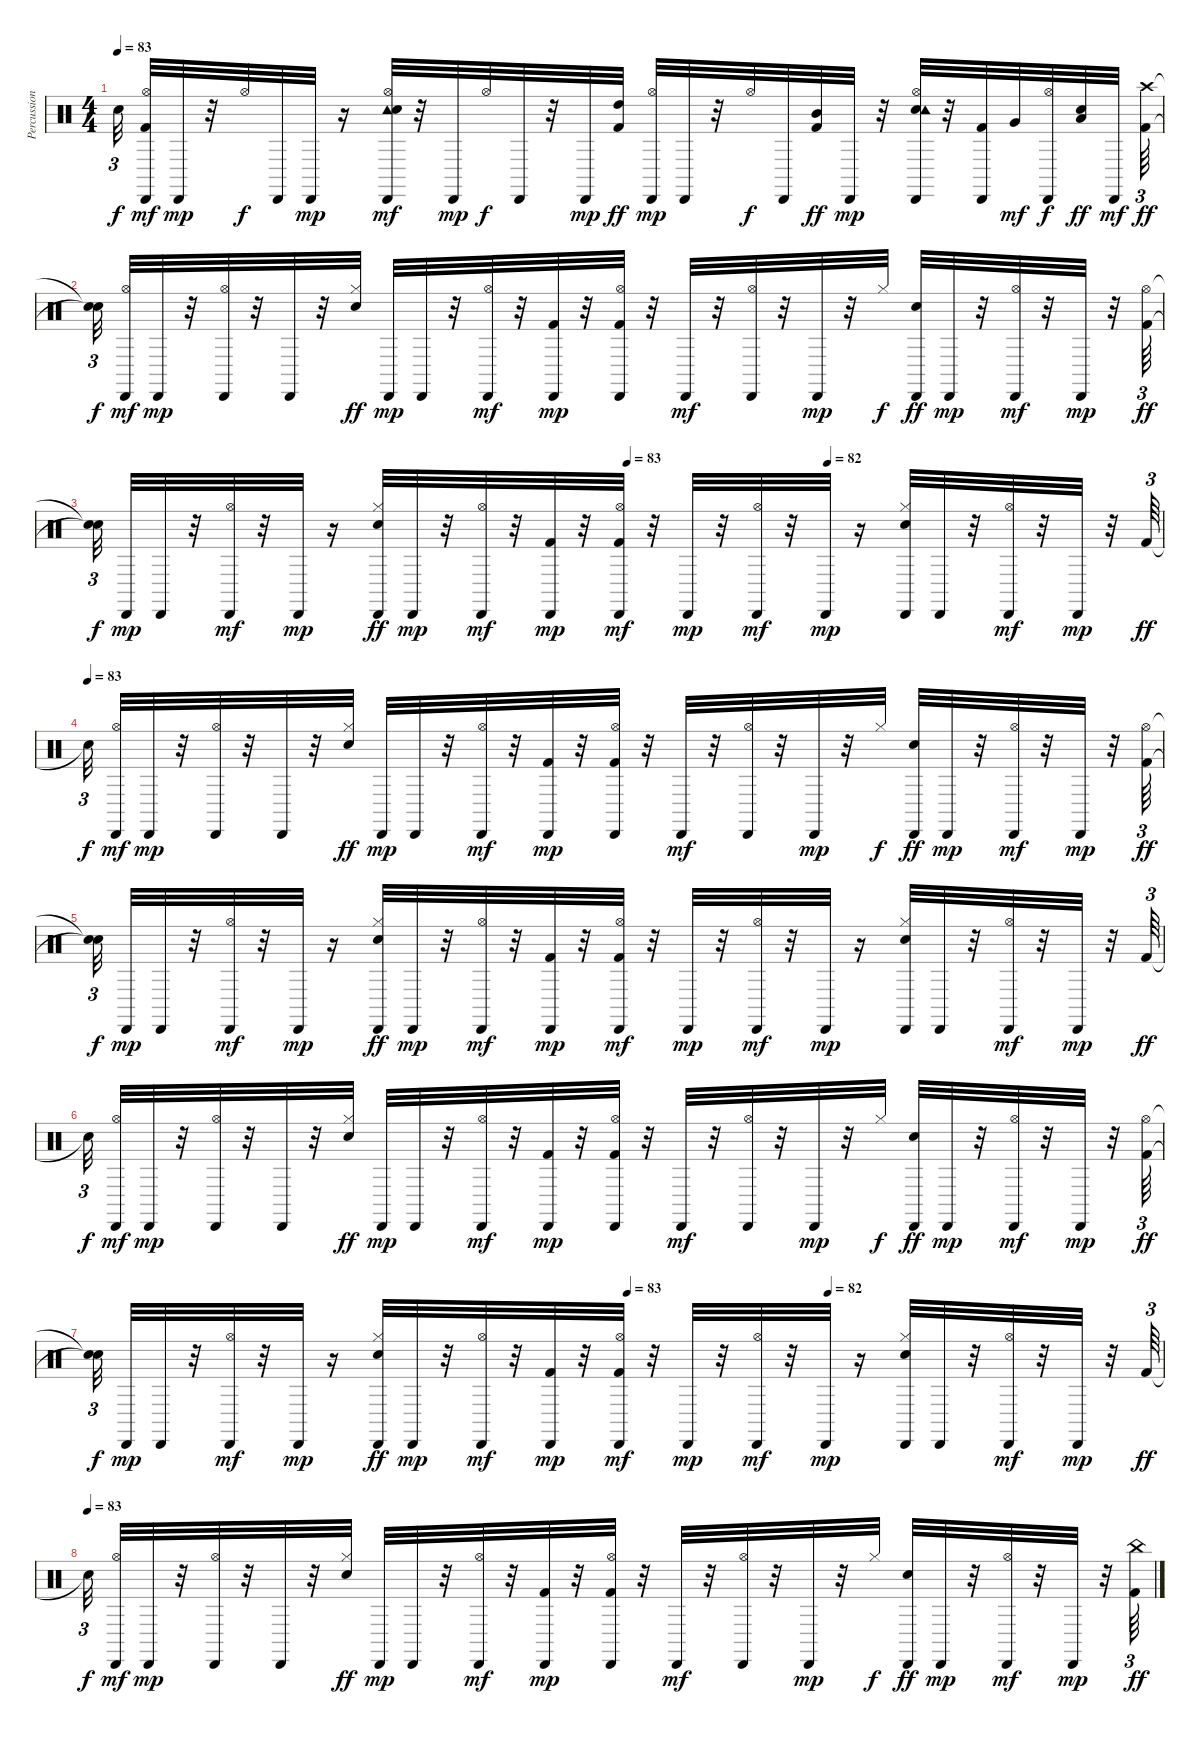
\track ("Percussion" "Percussion") {instrument percussion}
\staff {score}
\articulation defaults
\ts (4 4)
\tempo 83
\clef neutral
\ks c "Snare (hit)"{t}.32{tu (3 2) dy f}
("Hi-Hat (open)" "Kick (hit) 2" "Cabasa (hit)").32{dy mf} "Cabasa (hit)".32{dy mp} r.32 "Hi-Hat (open)".32{dy f} "Cabasa (hit)".32 "Cabasa (hit)".32{dy mp} r.16 ("Tambourine (hit)" "Electric Snare (hit)" "Hi-Hat (open)" "Cabasa (hit)").32{dy mf} r.32 "Cabasa (hit)".32{dy mp} "Hi-Hat (open)".32{dy f} "Cabasa (hit)".32 r.32 "Cabasa (hit)".32{dy mp} ("High Tom (hit)" "Kick (hit) 2").32{dy ff} ("Cabasa (hit)" "Hi-Hat (open)").32{dy mp} "Cabasa (hit)".32 r.32 "Hi-Hat (open)".32{dy f} "Cabasa (hit)".32 ("Mid Tom (hit)" "Kick (hit) 2").32{dy ff} "Cabasa (hit)".32{dy mp} r.32 ("Hi-Hat (open)" "Cabasa (hit)" "Electric Snare (hit)" "Tambourine (hit)").32 r.32 ("Kick (hit) 2" "Cabasa (hit)").32 "Very Low Tom (hit)".32{dy mf} ("Hi-Hat (open)" "Cabasa (hit)").32{dy f} ("Low Floor Tom (hit)" "Electric Snare (hit)").32{dy ff} "Cabasa (hit)".32{dy mf} ("Crash high (hit)" "Kick (hit) 2").64{tu (3 2) dy ff} |
("Snare (hit)"{t} "Snare (hit)"{t}).32{tu (3 2) dy f} ("Cabasa (hit)" "Hi-Hat (open)").32{dy mf} "Cabasa (hit)".32{dy mp} r.32 ("Hi-Hat (open)" "Cabasa (hit)").32 r.32 "Cabasa (hit)".32 r.32 ("Hi-Hat (closed)" "Electric Snare (hit)").32{dy ff} "Cabasa (hit)".32{dy mp} "Cabasa (hit)".32 r.32 ("Hi-Hat (open)" "Cabasa (hit)").32{dy mf} r.32 ("Kick (hit) 2" "Cabasa (hit)").32{dy mp} r.32 ("Hi-Hat (open)" "Kick (hit) 2" "Cabasa (hit)").32 r.32 "Cabasa (hit)".32{dy mf} r.32 ("Hi-Hat (open)" "Cabasa (hit)").32 r.32 "Cabasa (hit)".32{dy mp} r.32 "Hi-Hat (closed)".32{dy f} ("Cabasa (hit)" "Electric Snare (hit)").32{dy ff} "Cabasa (hit)".32{dy mp} r.32 ("Hi-Hat (open)" "Cabasa (hit)").32{dy mf} r.32 "Cabasa (hit)".32{dy mp} r.32 ("Kick (hit) 2" "Hi-Hat (open)").64{tu (3 2) dy ff} |
\tempo (83 0.5)
\tempo (82 0.6875)
("Snare (hit)"{t} "Snare (hit)"{t}).32{tu (3 2) dy f} "Cabasa (hit)".32{dy mp} "Cabasa (hit)".32 r.32 ("Hi-Hat (open)" "Cabasa (hit)").32{dy mf} r.32 "Cabasa (hit)".32{dy mp} r.16 ("Hi-Hat (closed)" "Cabasa (hit)" "Electric Snare (hit)").32{dy ff} "Cabasa (hit)".32{dy mp} r.32 ("Cabasa (hit)" "Hi-Hat (open)").32{dy mf} r.32 ("Cabasa (hit)" "Kick (hit) 2").32{dy mp} r.32 ("Kick (hit) 2" "Cabasa (hit)" "Hi-Hat (open)").32{dy mf} r.32 "Cabasa (hit)".32{dy mp} r.32 ("Hi-Hat (open)" "Cabasa (hit)").32{dy mf} r.32 "Cabasa (hit)".32{dy mp} r.16 ("Electric Snare (hit)" "Hi-Hat (closed)" "Cabasa (hit)").32 "Cabasa (hit)".32 r.32 ("Hi-Hat (open)" "Cabasa (hit)").32{dy mf} r.32 "Cabasa (hit)".32{dy mp} r.32 "Kick (hit) 2".64{tu (3 2) dy ff} |
\tempo (83)
"Snare (hit)"{t}.32{tu (3 2) dy f} ("Cabasa (hit)" "Hi-Hat (open)").32{dy mf} "Cabasa (hit)".32{dy mp} r.32 ("Hi-Hat (open)" "Cabasa (hit)").32 r.32 "Cabasa (hit)".32 r.32 ("Hi-Hat (closed)" "Electric Snare (hit)").32{dy ff} "Cabasa (hit)".32{dy mp} "Cabasa (hit)".32 r.32 ("Hi-Hat (open)" "Cabasa (hit)").32{dy mf} r.32 ("Kick (hit) 2" "Cabasa (hit)").32{dy mp} r.32 ("Hi-Hat (open)" "Kick (hit) 2" "Cabasa (hit)").32 r.32 "Cabasa (hit)".32{dy mf} r.32 ("Hi-Hat (open)" "Cabasa (hit)").32 r.32 "Cabasa (hit)".32{dy mp} r.32 "Hi-Hat (closed)".32{dy f} ("Cabasa (hit)" "Electric Snare (hit)").32{dy ff} "Cabasa (hit)".32{dy mp} r.32 ("Hi-Hat (open)" "Cabasa (hit)").32{dy mf} r.32 "Cabasa (hit)".32{dy mp} r.32 ("Kick (hit) 2" "Hi-Hat (open)").64{tu (3 2) dy ff} |
("Snare (hit)"{t} "Snare (hit)"{t}).32{tu (3 2) dy f} "Cabasa (hit)".32{dy mp} "Cabasa (hit)".32 r.32 ("Hi-Hat (open)" "Cabasa (hit)").32{dy mf} r.32 "Cabasa (hit)".32{dy mp} r.16 ("Hi-Hat (closed)" "Cabasa (hit)" "Electric Snare (hit)").32{dy ff} "Cabasa (hit)".32{dy mp} r.32 ("Cabasa (hit)" "Hi-Hat (open)").32{dy mf} r.32 ("Cabasa (hit)" "Kick (hit) 2").32{dy mp} r.32 ("Kick (hit) 2" "Cabasa (hit)" "Hi-Hat (open)").32{dy mf} r.32 "Cabasa (hit)".32{dy mp} r.32 ("Hi-Hat (open)" "Cabasa (hit)").32{dy mf} r.32 "Cabasa (hit)".32{dy mp} r.16 ("Electric Snare (hit)" "Hi-Hat (closed)" "Cabasa (hit)").32 "Cabasa (hit)".32 r.32 ("Hi-Hat (open)" "Cabasa (hit)").32{dy mf} r.32 "Cabasa (hit)".32{dy mp} r.32 "Kick (hit) 2".64{tu (3 2) dy ff} |
"Snare (hit)"{t}.32{tu (3 2) dy f} ("Cabasa (hit)" "Hi-Hat (open)").32{dy mf} "Cabasa (hit)".32{dy mp} r.32 ("Hi-Hat (open)" "Cabasa (hit)").32 r.32 "Cabasa (hit)".32 r.32 ("Hi-Hat (closed)" "Electric Snare (hit)").32{dy ff} "Cabasa (hit)".32{dy mp} "Cabasa (hit)".32 r.32 ("Hi-Hat (open)" "Cabasa (hit)").32{dy mf} r.32 ("Kick (hit) 2" "Cabasa (hit)").32{dy mp} r.32 ("Hi-Hat (open)" "Kick (hit) 2" "Cabasa (hit)").32 r.32 "Cabasa (hit)".32{dy mf} r.32 ("Hi-Hat (open)" "Cabasa (hit)").32 r.32 "Cabasa (hit)".32{dy mp} r.32 "Hi-Hat (closed)".32{dy f} ("Cabasa (hit)" "Electric Snare (hit)").32{dy ff} "Cabasa (hit)".32{dy mp} r.32 ("Hi-Hat (open)" "Cabasa (hit)").32{dy mf} r.32 "Cabasa (hit)".32{dy mp} r.32 ("Kick (hit) 2" "Hi-Hat (open)").64{tu (3 2) dy ff} |
\tempo (83 0.5)
\tempo (82 0.6875)
("Snare (hit)"{t} "Snare (hit)"{t}).32{tu (3 2) dy f} "Cabasa (hit)".32{dy mp} "Cabasa (hit)".32 r.32 ("Hi-Hat (open)" "Cabasa (hit)").32{dy mf} r.32 "Cabasa (hit)".32{dy mp} r.16 ("Hi-Hat (closed)" "Cabasa (hit)" "Electric Snare (hit)").32{dy ff} "Cabasa (hit)".32{dy mp} r.32 ("Cabasa (hit)" "Hi-Hat (open)").32{dy mf} r.32 ("Cabasa (hit)" "Kick (hit) 2").32{dy mp} r.32 ("Kick (hit) 2" "Cabasa (hit)" "Hi-Hat (open)").32{dy mf} r.32 "Cabasa (hit)".32{dy mp} r.32 ("Hi-Hat (open)" "Cabasa (hit)").32{dy mf} r.32 "Cabasa (hit)".32{dy mp} r.16 ("Electric Snare (hit)" "Hi-Hat (closed)" "Cabasa (hit)").32 "Cabasa (hit)".32 r.32 ("Hi-Hat (open)" "Cabasa (hit)").32{dy mf} r.32 "Cabasa (hit)".32{dy mp} r.32 "Kick (hit) 2".64{tu (3 2) dy ff} |
\tempo (83)
"Snare (hit)"{t}.32{tu (3 2) dy f} ("Cabasa (hit)" "Hi-Hat (open)").32{dy mf} "Cabasa (hit)".32{dy mp} r.32 ("Hi-Hat (open)" "Cabasa (hit)").32 r.32 "Cabasa (hit)".32 r.32 ("Hi-Hat (closed)" "Electric Snare (hit)").32{dy ff} "Cabasa (hit)".32{dy mp} "Cabasa (hit)".32 r.32 ("Hi-Hat (open)" "Cabasa (hit)").32{dy mf} r.32 ("Kick (hit) 2" "Cabasa (hit)").32{dy mp} r.32 ("Hi-Hat (open)" "Kick (hit) 2" "Cabasa (hit)").32 r.32 "Cabasa (hit)".32{dy mf} r.32 ("Hi-Hat (open)" "Cabasa (hit)").32 r.32 "Cabasa (hit)".32{dy mp} r.32 "Hi-Hat (closed)".32{dy f} ("Cabasa (hit)" "Electric Snare (hit)").32{dy ff} "Cabasa (hit)".32{dy mp} r.32 ("Hi-Hat (open)" "Cabasa (hit)").32{dy mf} r.32 "Cabasa (hit)".32{dy mp} r.32 ("China (hit)" "Kick (hit) 2").64{tu (3 2) dy ff}
